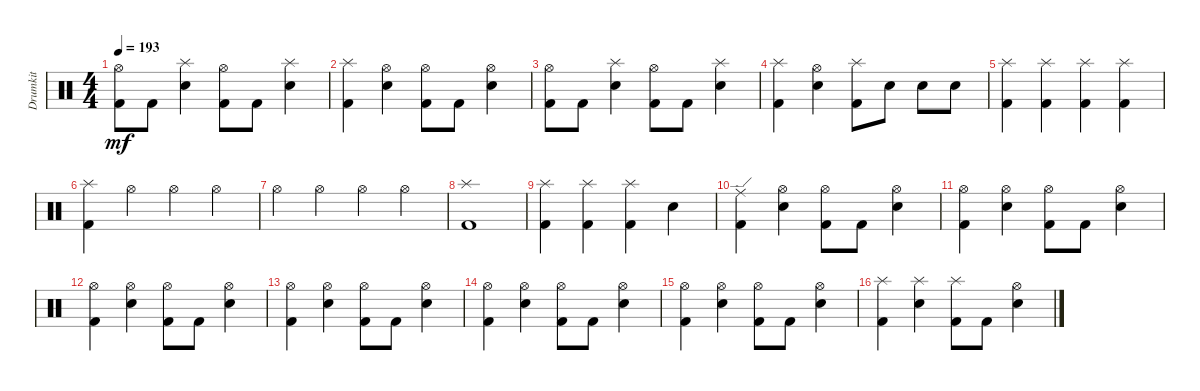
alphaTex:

\track ("Drumkit" "Drumkit") {instrument percussion}
\staff {score}
\articulation defaults
\ts (4 4)
\tempo 193
\clef neutral
\ks c
("Kick (hit) 2" "Hi-Hat (open)").8{dy mf} "Kick (hit) 2".8 ("Snare (hit) 2" "Splash (hit)").4 ("Kick (hit) 2" "Hi-Hat (open)").8 "Kick (hit) 2".8 ("Snare (hit) 2" "Splash (hit)").4 |
("Kick (hit) 2" "Splash (hit)").4 ("Snare (hit) 2" "Hi-Hat (open)").4 ("Kick (hit) 2" "Hi-Hat (open)").8 "Kick (hit) 2".8 ("Snare (hit) 2" "Hi-Hat (open)").4 |
("Kick (hit) 2" "Hi-Hat (open)").8 "Kick (hit) 2".8 ("Snare (hit) 2" "Splash (hit)").4 ("Kick (hit) 2" "Hi-Hat (open)").8 "Kick (hit) 2".8 ("Snare (hit) 2" "Splash (hit)").4 |
("Kick (hit) 2" "Splash (hit)").4 ("Snare (hit) 2" "Hi-Hat (open)").4 ("Kick (hit) 2" "Splash (hit)").8 "Snare (hit) 2".8 "Snare (hit) 2".8 "Snare (hit) 2".8 |
("Kick (hit) 2" "Splash (hit)").4 ("Kick (hit) 2" "Splash (hit)").4 ("Kick (hit) 2" "Splash (hit)").4 ("Kick (hit) 2" "Splash (hit)").4 |
("Kick (hit) 2" "Splash (hit)").4 "Hi-Hat (open)".4 "Hi-Hat (open)".4 "Hi-Hat (open)".4 |
"Hi-Hat (open)".4 "Hi-Hat (open)".4 "Hi-Hat (open)".4 "Hi-Hat (open)".4 |
("Splash (hit)" "Kick (hit) 2").1 |
("Kick (hit) 2" "Splash (hit)").4 ("Kick (hit) 2" "Splash (hit)").4 ("Kick (hit) 2" "Splash (hit)").4 "Snare (hit) 2".4 |
("Kick (hit) 2" "Ride (edge)").4 ("Snare (hit) 2" "Hi-Hat (open)").4 ("Kick (hit) 2" "Hi-Hat (open)").8 "Kick (hit) 2".8 ("Snare (hit) 2" "Hi-Hat (open)").4 |
("Kick (hit) 2" "Hi-Hat (open)").4 ("Snare (hit) 2" "Hi-Hat (open)").4 ("Kick (hit) 2" "Hi-Hat (open)").8 "Kick (hit) 2".8 ("Snare (hit) 2" "Hi-Hat (open)").4 |
("Kick (hit) 2" "Hi-Hat (open)").4 ("Snare (hit) 2" "Hi-Hat (open)").4 ("Kick (hit) 2" "Hi-Hat (open)").8 "Kick (hit) 2".8 ("Snare (hit) 2" "Hi-Hat (open)").4 |
("Kick (hit) 2" "Hi-Hat (open)").4 ("Snare (hit) 2" "Hi-Hat (open)").4 ("Kick (hit) 2" "Hi-Hat (open)").8 "Kick (hit) 2".8 ("Snare (hit) 2" "Hi-Hat (open)").4 |
("Kick (hit) 2" "Hi-Hat (open)").4 ("Snare (hit) 2" "Hi-Hat (open)").4 ("Kick (hit) 2" "Hi-Hat (open)").8 "Kick (hit) 2".8 ("Snare (hit) 2" "Hi-Hat (open)").4 |
("Kick (hit) 2" "Hi-Hat (open)").4 ("Snare (hit) 2" "Hi-Hat (open)").4 ("Kick (hit) 2" "Hi-Hat (open)").8 "Kick (hit) 2".8 ("Snare (hit) 2" "Hi-Hat (open)").4 |
("Kick (hit) 2" "Splash (hit)").4 ("Snare (hit) 2" "Splash (hit)").4 ("Kick (hit) 2" "Splash (hit)").8 "Kick (hit) 2".8 ("Snare (hit) 2" "Hi-Hat (open)").4
